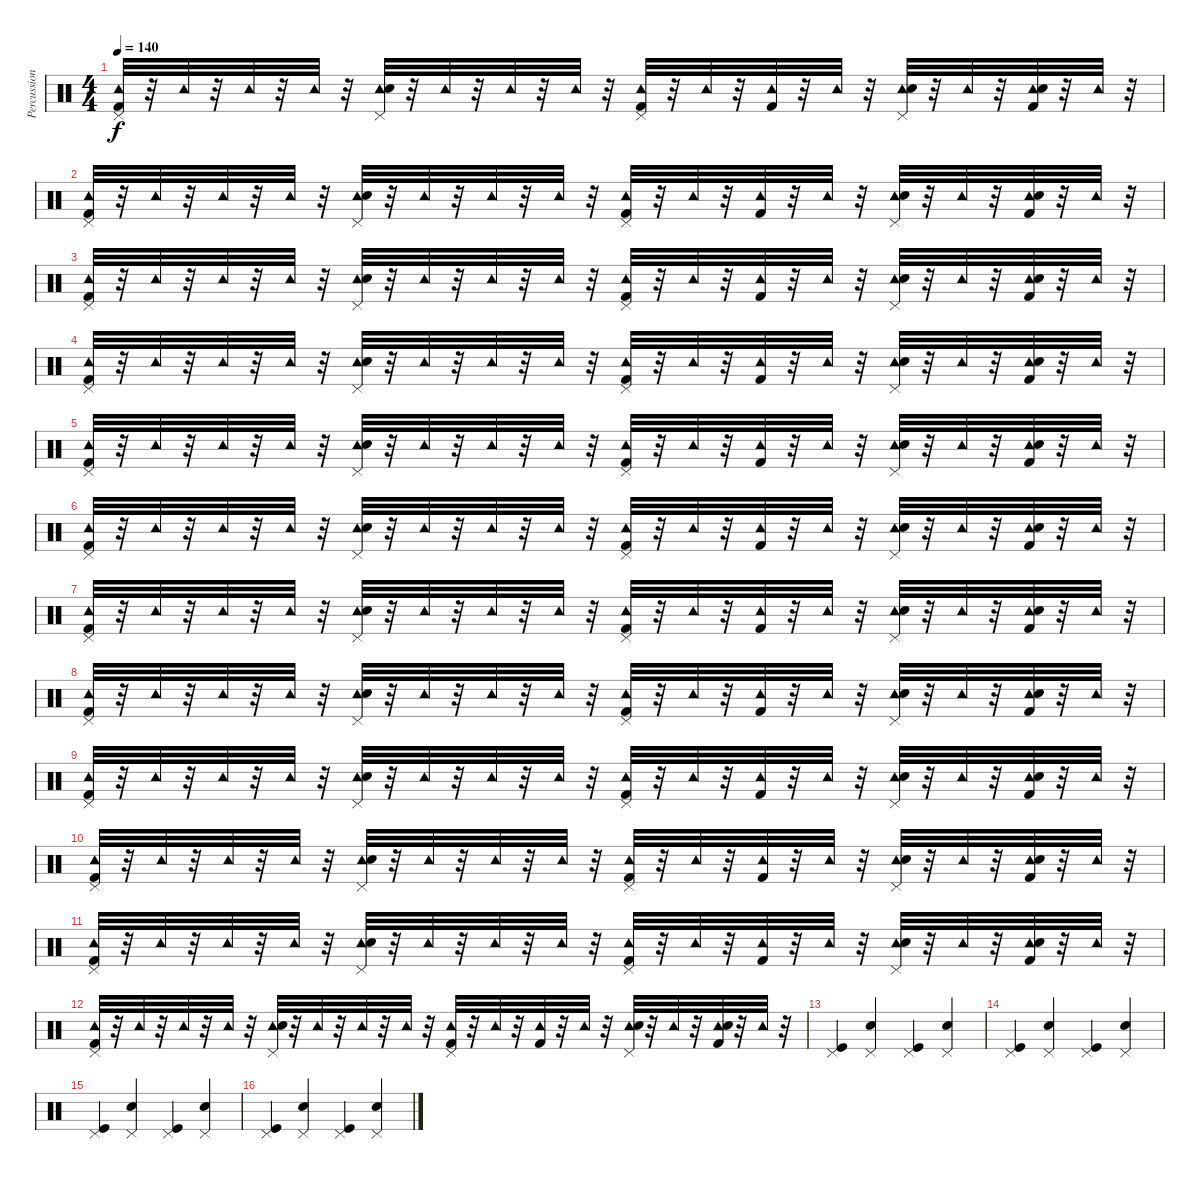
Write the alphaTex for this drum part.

\track ("Percussion" "Percussion") {instrument percussion}
\staff {score}
\articulation defaults
\ts (4 4)
\tempo 140
\clef neutral
\ks c
("Pedal Hi-Hat (hit)" "Tambourine (hit)" "Kick (hit) 2").32{dy f} r.32 "Tambourine (hit)".32 r.32 "Tambourine (hit)".32 r.32 "Tambourine (hit)".32 r.32 ("Pedal Hi-Hat (hit)" "Tambourine (hit)" "Snare (hit) 2").32 r.32 "Tambourine (hit)".32 r.32 "Tambourine (hit)".32 r.32 "Tambourine (hit)".32 r.32 ("Pedal Hi-Hat (hit)" "Tambourine (hit)" "Kick (hit) 2").32 r.32 "Tambourine (hit)".32 r.32 ("Tambourine (hit)" "Kick (hit) 2").32 r.32 "Tambourine (hit)".32 r.32 ("Pedal Hi-Hat (hit)" "Tambourine (hit)" "Snare (hit) 2").32 r.32 "Tambourine (hit)".32 r.32 ("Tambourine (hit)" "Snare (hit) 2" "Kick (hit) 2").32 r.32 "Tambourine (hit)".32 r.32 |
("Pedal Hi-Hat (hit)" "Tambourine (hit)" "Kick (hit) 2").32 r.32 "Tambourine (hit)".32 r.32 "Tambourine (hit)".32 r.32 "Tambourine (hit)".32 r.32 ("Pedal Hi-Hat (hit)" "Tambourine (hit)" "Snare (hit) 2").32 r.32 "Tambourine (hit)".32 r.32 "Tambourine (hit)".32 r.32 "Tambourine (hit)".32 r.32 ("Pedal Hi-Hat (hit)" "Tambourine (hit)" "Kick (hit) 2").32 r.32 "Tambourine (hit)".32 r.32 ("Tambourine (hit)" "Kick (hit) 2").32 r.32 "Tambourine (hit)".32 r.32 ("Pedal Hi-Hat (hit)" "Tambourine (hit)" "Snare (hit) 2").32 r.32 "Tambourine (hit)".32 r.32 ("Tambourine (hit)" "Snare (hit) 2" "Kick (hit) 2").32 r.32 "Tambourine (hit)".32 r.32 |
("Pedal Hi-Hat (hit)" "Tambourine (hit)" "Kick (hit) 2").32 r.32 "Tambourine (hit)".32 r.32 "Tambourine (hit)".32 r.32 "Tambourine (hit)".32 r.32 ("Pedal Hi-Hat (hit)" "Tambourine (hit)" "Snare (hit) 2").32 r.32 "Tambourine (hit)".32 r.32 "Tambourine (hit)".32 r.32 "Tambourine (hit)".32 r.32 ("Pedal Hi-Hat (hit)" "Tambourine (hit)" "Kick (hit) 2").32 r.32 "Tambourine (hit)".32 r.32 ("Tambourine (hit)" "Kick (hit) 2").32 r.32 "Tambourine (hit)".32 r.32 ("Pedal Hi-Hat (hit)" "Tambourine (hit)" "Snare (hit) 2").32 r.32 "Tambourine (hit)".32 r.32 ("Tambourine (hit)" "Snare (hit) 2" "Kick (hit) 2").32 r.32 "Tambourine (hit)".32 r.32 |
("Pedal Hi-Hat (hit)" "Tambourine (hit)" "Kick (hit) 2").32 r.32 "Tambourine (hit)".32 r.32 "Tambourine (hit)".32 r.32 "Tambourine (hit)".32 r.32 ("Pedal Hi-Hat (hit)" "Tambourine (hit)" "Snare (hit) 2").32 r.32 "Tambourine (hit)".32 r.32 "Tambourine (hit)".32 r.32 "Tambourine (hit)".32 r.32 ("Pedal Hi-Hat (hit)" "Tambourine (hit)" "Kick (hit) 2").32 r.32 "Tambourine (hit)".32 r.32 ("Tambourine (hit)" "Kick (hit) 2").32 r.32 "Tambourine (hit)".32 r.32 ("Pedal Hi-Hat (hit)" "Tambourine (hit)" "Snare (hit) 2").32 r.32 "Tambourine (hit)".32 r.32 ("Tambourine (hit)" "Snare (hit) 2" "Kick (hit) 2").32 r.32 "Tambourine (hit)".32 r.32 |
("Pedal Hi-Hat (hit)" "Tambourine (hit)" "Kick (hit) 2").32 r.32 "Tambourine (hit)".32 r.32 "Tambourine (hit)".32 r.32 "Tambourine (hit)".32 r.32 ("Pedal Hi-Hat (hit)" "Tambourine (hit)" "Snare (hit) 2").32 r.32 "Tambourine (hit)".32 r.32 "Tambourine (hit)".32 r.32 "Tambourine (hit)".32 r.32 ("Pedal Hi-Hat (hit)" "Tambourine (hit)" "Kick (hit) 2").32 r.32 "Tambourine (hit)".32 r.32 ("Tambourine (hit)" "Kick (hit) 2").32 r.32 "Tambourine (hit)".32 r.32 ("Pedal Hi-Hat (hit)" "Tambourine (hit)" "Snare (hit) 2").32 r.32 "Tambourine (hit)".32 r.32 ("Tambourine (hit)" "Snare (hit) 2" "Kick (hit) 2").32 r.32 "Tambourine (hit)".32 r.32 |
("Pedal Hi-Hat (hit)" "Tambourine (hit)" "Kick (hit) 2").32 r.32 "Tambourine (hit)".32 r.32 "Tambourine (hit)".32 r.32 "Tambourine (hit)".32 r.32 ("Pedal Hi-Hat (hit)" "Tambourine (hit)" "Snare (hit) 2").32 r.32 "Tambourine (hit)".32 r.32 "Tambourine (hit)".32 r.32 "Tambourine (hit)".32 r.32 ("Pedal Hi-Hat (hit)" "Tambourine (hit)" "Kick (hit) 2").32 r.32 "Tambourine (hit)".32 r.32 ("Tambourine (hit)" "Kick (hit) 2").32 r.32 "Tambourine (hit)".32 r.32 ("Pedal Hi-Hat (hit)" "Tambourine (hit)" "Snare (hit) 2").32 r.32 "Tambourine (hit)".32 r.32 ("Tambourine (hit)" "Snare (hit) 2" "Kick (hit) 2").32 r.32 "Tambourine (hit)".32 r.32 |
("Pedal Hi-Hat (hit)" "Tambourine (hit)" "Kick (hit) 2").32 r.32 "Tambourine (hit)".32 r.32 "Tambourine (hit)".32 r.32 "Tambourine (hit)".32 r.32 ("Pedal Hi-Hat (hit)" "Tambourine (hit)" "Snare (hit) 2").32 r.32 "Tambourine (hit)".32 r.32 "Tambourine (hit)".32 r.32 "Tambourine (hit)".32 r.32 ("Pedal Hi-Hat (hit)" "Tambourine (hit)" "Kick (hit) 2").32 r.32 "Tambourine (hit)".32 r.32 ("Tambourine (hit)" "Kick (hit) 2").32 r.32 "Tambourine (hit)".32 r.32 ("Pedal Hi-Hat (hit)" "Tambourine (hit)" "Snare (hit) 2").32 r.32 "Tambourine (hit)".32 r.32 ("Tambourine (hit)" "Snare (hit) 2" "Kick (hit) 2").32 r.32 "Tambourine (hit)".32 r.32 |
("Pedal Hi-Hat (hit)" "Tambourine (hit)" "Kick (hit) 2").32 r.32 "Tambourine (hit)".32 r.32 "Tambourine (hit)".32 r.32 "Tambourine (hit)".32 r.32 ("Pedal Hi-Hat (hit)" "Tambourine (hit)" "Snare (hit) 2").32 r.32 "Tambourine (hit)".32 r.32 "Tambourine (hit)".32 r.32 "Tambourine (hit)".32 r.32 ("Pedal Hi-Hat (hit)" "Tambourine (hit)" "Kick (hit) 2").32 r.32 "Tambourine (hit)".32 r.32 ("Tambourine (hit)" "Kick (hit) 2").32 r.32 "Tambourine (hit)".32 r.32 ("Pedal Hi-Hat (hit)" "Tambourine (hit)" "Snare (hit) 2").32 r.32 "Tambourine (hit)".32 r.32 ("Tambourine (hit)" "Snare (hit) 2" "Kick (hit) 2").32 r.32 "Tambourine (hit)".32 r.32 |
("Pedal Hi-Hat (hit)" "Tambourine (hit)" "Kick (hit) 2").32 r.32 "Tambourine (hit)".32 r.32 "Tambourine (hit)".32 r.32 "Tambourine (hit)".32 r.32 ("Pedal Hi-Hat (hit)" "Tambourine (hit)" "Snare (hit) 2").32 r.32 "Tambourine (hit)".32 r.32 "Tambourine (hit)".32 r.32 "Tambourine (hit)".32 r.32 ("Pedal Hi-Hat (hit)" "Tambourine (hit)" "Kick (hit) 2").32 r.32 "Tambourine (hit)".32 r.32 ("Tambourine (hit)" "Kick (hit) 2").32 r.32 "Tambourine (hit)".32 r.32 ("Pedal Hi-Hat (hit)" "Tambourine (hit)" "Snare (hit) 2").32 r.32 "Tambourine (hit)".32 r.32 ("Tambourine (hit)" "Snare (hit) 2" "Kick (hit) 2").32 r.32 "Tambourine (hit)".32 r.32 |
("Pedal Hi-Hat (hit)" "Tambourine (hit)" "Kick (hit) 2").32 r.32 "Tambourine (hit)".32 r.32 "Tambourine (hit)".32 r.32 "Tambourine (hit)".32 r.32 ("Pedal Hi-Hat (hit)" "Tambourine (hit)" "Snare (hit) 2").32 r.32 "Tambourine (hit)".32 r.32 "Tambourine (hit)".32 r.32 "Tambourine (hit)".32 r.32 ("Pedal Hi-Hat (hit)" "Tambourine (hit)" "Kick (hit) 2").32 r.32 "Tambourine (hit)".32 r.32 ("Tambourine (hit)" "Kick (hit) 2").32 r.32 "Tambourine (hit)".32 r.32 ("Pedal Hi-Hat (hit)" "Tambourine (hit)" "Snare (hit) 2").32 r.32 "Tambourine (hit)".32 r.32 ("Tambourine (hit)" "Snare (hit) 2" "Kick (hit) 2").32 r.32 "Tambourine (hit)".32 r.32 |
("Pedal Hi-Hat (hit)" "Tambourine (hit)" "Kick (hit) 2").32 r.32 "Tambourine (hit)".32 r.32 "Tambourine (hit)".32 r.32 "Tambourine (hit)".32 r.32 ("Pedal Hi-Hat (hit)" "Tambourine (hit)" "Snare (hit) 2").32 r.32 "Tambourine (hit)".32 r.32 "Tambourine (hit)".32 r.32 "Tambourine (hit)".32 r.32 ("Pedal Hi-Hat (hit)" "Tambourine (hit)" "Kick (hit) 2").32 r.32 "Tambourine (hit)".32 r.32 ("Tambourine (hit)" "Kick (hit) 2").32 r.32 "Tambourine (hit)".32 r.32 ("Pedal Hi-Hat (hit)" "Tambourine (hit)" "Snare (hit) 2").32 r.32 "Tambourine (hit)".32 r.32 ("Tambourine (hit)" "Snare (hit) 2" "Kick (hit) 2").32 r.32 "Tambourine (hit)".32 r.32 |
("Pedal Hi-Hat (hit)" "Tambourine (hit)" "Kick (hit) 2").32 r.32 "Tambourine (hit)".32 r.32 "Tambourine (hit)".32 r.32 "Tambourine (hit)".32 r.32 ("Pedal Hi-Hat (hit)" "Tambourine (hit)" "Snare (hit) 2").32 r.32 "Tambourine (hit)".32 r.32 "Tambourine (hit)".32 r.32 "Tambourine (hit)".32 r.32 ("Pedal Hi-Hat (hit)" "Tambourine (hit)" "Kick (hit) 2").32 r.32 "Tambourine (hit)".32 r.32 ("Tambourine (hit)" "Kick (hit) 2").32 r.32 "Tambourine (hit)".32 r.32 ("Pedal Hi-Hat (hit)" "Tambourine (hit)" "Snare (hit) 2").32 r.32 "Tambourine (hit)".32 r.32 ("Tambourine (hit)" "Snare (hit) 2" "Kick (hit) 2").32 r.32 "Tambourine (hit)".32 r.32 |
("Pedal Hi-Hat (hit)" "Kick (hit)").4 ("Pedal Hi-Hat (hit)" "Snare (hit) 2").4 ("Pedal Hi-Hat (hit)" "Kick (hit)").4 ("Pedal Hi-Hat (hit)" "Snare (hit) 2").4 |
("Pedal Hi-Hat (hit)" "Kick (hit)").4 ("Pedal Hi-Hat (hit)" "Snare (hit) 2").4 ("Pedal Hi-Hat (hit)" "Kick (hit)").4 ("Pedal Hi-Hat (hit)" "Snare (hit) 2").4 |
("Pedal Hi-Hat (hit)" "Kick (hit)").4 ("Pedal Hi-Hat (hit)" "Snare (hit) 2").4 ("Pedal Hi-Hat (hit)" "Kick (hit)").4 ("Pedal Hi-Hat (hit)" "Snare (hit) 2").4 |
("Pedal Hi-Hat (hit)" "Kick (hit)").4 ("Pedal Hi-Hat (hit)" "Snare (hit) 2").4 ("Pedal Hi-Hat (hit)" "Kick (hit)").4 ("Pedal Hi-Hat (hit)" "Snare (hit) 2").4
